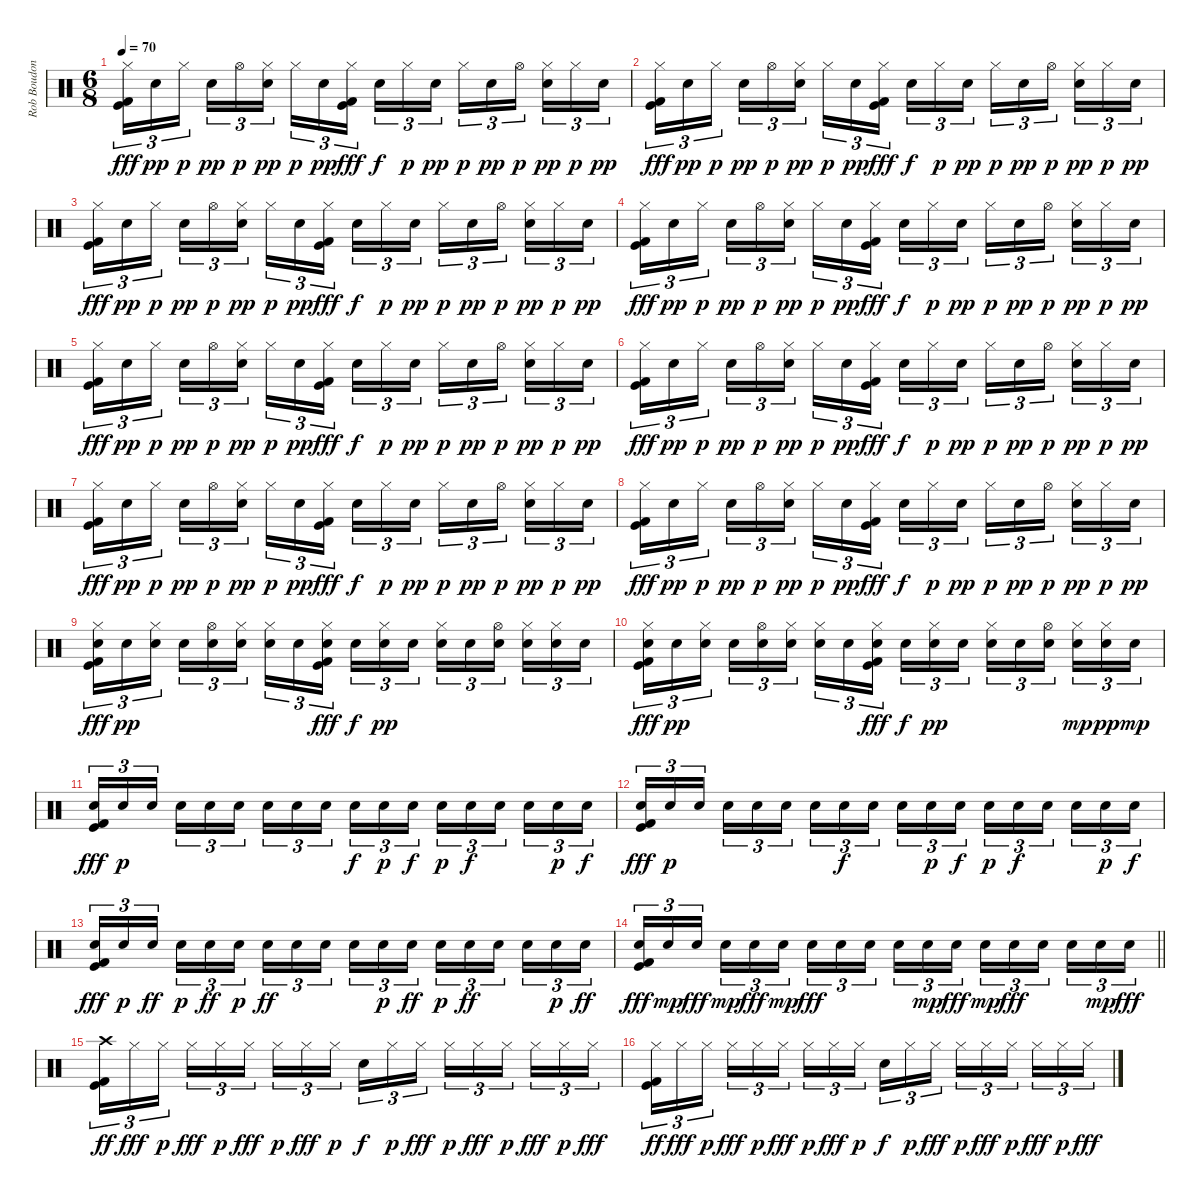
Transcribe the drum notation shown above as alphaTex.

\track ("Rob Boudon [Drums]" "Rob Boudon") {instrument percussion}
\staff {score}
\articulation defaults
\ts (6 8)
\tempo 70
\clef neutral
\ks c
("Hi-Hat (closed)" "Kick (hit)" "Kick (hit) 2").16{tu (3 2) dy fff} "Electric Snare (hit)".16{tu (3 2) dy pp} "Hi-Hat (closed)".16{tu (3 2) dy p beam splitsecondary} "Electric Snare (hit)".16{tu (3 2) dy pp} "Hi-Hat (open)".16{tu (3 2) dy p} ("Hi-Hat (closed)" "Electric Snare (hit)").16{tu (3 2) dy pp beam splitsecondary} "Hi-Hat (closed)".16{tu (3 2) dy p} "Electric Snare (hit)".16{tu (3 2) dy pp} ("Hi-Hat (closed)" "Kick (hit)" "Kick (hit) 2").16{tu (3 2) dy fff} "Electric Snare (hit)".16{tu (3 2) dy f} "Hi-Hat (closed)".16{tu (3 2) dy p} "Electric Snare (hit)".16{tu (3 2) dy pp beam splitsecondary} "Hi-Hat (closed)".16{tu (3 2) dy p} "Electric Snare (hit)".16{tu (3 2) dy pp} "Hi-Hat (open)".16{tu (3 2) dy p beam splitsecondary} ("Hi-Hat (closed)" "Electric Snare (hit)").16{tu (3 2) dy pp} "Hi-Hat (closed)".16{tu (3 2) dy p} "Electric Snare (hit)".16{tu (3 2) dy pp} |
("Hi-Hat (closed)" "Kick (hit)" "Kick (hit) 2").16{tu (3 2) dy fff} "Electric Snare (hit)".16{tu (3 2) dy pp} "Hi-Hat (closed)".16{tu (3 2) dy p beam splitsecondary} "Electric Snare (hit)".16{tu (3 2) dy pp} "Hi-Hat (open)".16{tu (3 2) dy p} ("Hi-Hat (closed)" "Electric Snare (hit)").16{tu (3 2) dy pp beam splitsecondary} "Hi-Hat (closed)".16{tu (3 2) dy p} "Electric Snare (hit)".16{tu (3 2) dy pp} ("Hi-Hat (closed)" "Kick (hit)" "Kick (hit) 2").16{tu (3 2) dy fff} "Electric Snare (hit)".16{tu (3 2) dy f} "Hi-Hat (closed)".16{tu (3 2) dy p} "Electric Snare (hit)".16{tu (3 2) dy pp beam splitsecondary} "Hi-Hat (closed)".16{tu (3 2) dy p} "Electric Snare (hit)".16{tu (3 2) dy pp} "Hi-Hat (open)".16{tu (3 2) dy p beam splitsecondary} ("Hi-Hat (closed)" "Electric Snare (hit)").16{tu (3 2) dy pp} "Hi-Hat (closed)".16{tu (3 2) dy p} "Electric Snare (hit)".16{tu (3 2) dy pp} |
("Hi-Hat (closed)" "Kick (hit)" "Kick (hit) 2").16{tu (3 2) dy fff} "Electric Snare (hit)".16{tu (3 2) dy pp} "Hi-Hat (closed)".16{tu (3 2) dy p beam splitsecondary} "Electric Snare (hit)".16{tu (3 2) dy pp} "Hi-Hat (open)".16{tu (3 2) dy p} ("Hi-Hat (closed)" "Electric Snare (hit)").16{tu (3 2) dy pp beam splitsecondary} "Hi-Hat (closed)".16{tu (3 2) dy p} "Electric Snare (hit)".16{tu (3 2) dy pp} ("Hi-Hat (closed)" "Kick (hit)" "Kick (hit) 2").16{tu (3 2) dy fff} "Electric Snare (hit)".16{tu (3 2) dy f} "Hi-Hat (closed)".16{tu (3 2) dy p} "Electric Snare (hit)".16{tu (3 2) dy pp beam splitsecondary} "Hi-Hat (closed)".16{tu (3 2) dy p} "Electric Snare (hit)".16{tu (3 2) dy pp} "Hi-Hat (open)".16{tu (3 2) dy p beam splitsecondary} ("Hi-Hat (closed)" "Electric Snare (hit)").16{tu (3 2) dy pp} "Hi-Hat (closed)".16{tu (3 2) dy p} "Electric Snare (hit)".16{tu (3 2) dy pp} |
("Hi-Hat (closed)" "Kick (hit)" "Kick (hit) 2").16{tu (3 2) dy fff} "Electric Snare (hit)".16{tu (3 2) dy pp} "Hi-Hat (closed)".16{tu (3 2) dy p beam splitsecondary} "Electric Snare (hit)".16{tu (3 2) dy pp} "Hi-Hat (open)".16{tu (3 2) dy p} ("Hi-Hat (closed)" "Electric Snare (hit)").16{tu (3 2) dy pp beam splitsecondary} "Hi-Hat (closed)".16{tu (3 2) dy p} "Electric Snare (hit)".16{tu (3 2) dy pp} ("Hi-Hat (closed)" "Kick (hit)" "Kick (hit) 2").16{tu (3 2) dy fff} "Electric Snare (hit)".16{tu (3 2) dy f} "Hi-Hat (closed)".16{tu (3 2) dy p} "Electric Snare (hit)".16{tu (3 2) dy pp beam splitsecondary} "Hi-Hat (closed)".16{tu (3 2) dy p} "Electric Snare (hit)".16{tu (3 2) dy pp} "Hi-Hat (open)".16{tu (3 2) dy p beam splitsecondary} ("Hi-Hat (closed)" "Electric Snare (hit)").16{tu (3 2) dy pp} "Hi-Hat (closed)".16{tu (3 2) dy p} "Electric Snare (hit)".16{tu (3 2) dy pp} |
("Hi-Hat (closed)" "Kick (hit)" "Kick (hit) 2").16{tu (3 2) dy fff} "Electric Snare (hit)".16{tu (3 2) dy pp} "Hi-Hat (closed)".16{tu (3 2) dy p beam splitsecondary} "Electric Snare (hit)".16{tu (3 2) dy pp} "Hi-Hat (open)".16{tu (3 2) dy p} ("Hi-Hat (closed)" "Electric Snare (hit)").16{tu (3 2) dy pp beam splitsecondary} "Hi-Hat (closed)".16{tu (3 2) dy p} "Electric Snare (hit)".16{tu (3 2) dy pp} ("Hi-Hat (closed)" "Kick (hit)" "Kick (hit) 2").16{tu (3 2) dy fff} "Electric Snare (hit)".16{tu (3 2) dy f} "Hi-Hat (closed)".16{tu (3 2) dy p} "Electric Snare (hit)".16{tu (3 2) dy pp beam splitsecondary} "Hi-Hat (closed)".16{tu (3 2) dy p} "Electric Snare (hit)".16{tu (3 2) dy pp} "Hi-Hat (open)".16{tu (3 2) dy p beam splitsecondary} ("Hi-Hat (closed)" "Electric Snare (hit)").16{tu (3 2) dy pp} "Hi-Hat (closed)".16{tu (3 2) dy p} "Electric Snare (hit)".16{tu (3 2) dy pp} |
("Hi-Hat (closed)" "Kick (hit)" "Kick (hit) 2").16{tu (3 2) dy fff} "Electric Snare (hit)".16{tu (3 2) dy pp} "Hi-Hat (closed)".16{tu (3 2) dy p beam splitsecondary} "Electric Snare (hit)".16{tu (3 2) dy pp} "Hi-Hat (open)".16{tu (3 2) dy p} ("Hi-Hat (closed)" "Electric Snare (hit)").16{tu (3 2) dy pp beam splitsecondary} "Hi-Hat (closed)".16{tu (3 2) dy p} "Electric Snare (hit)".16{tu (3 2) dy pp} ("Hi-Hat (closed)" "Kick (hit)" "Kick (hit) 2").16{tu (3 2) dy fff} "Electric Snare (hit)".16{tu (3 2) dy f} "Hi-Hat (closed)".16{tu (3 2) dy p} "Electric Snare (hit)".16{tu (3 2) dy pp beam splitsecondary} "Hi-Hat (closed)".16{tu (3 2) dy p} "Electric Snare (hit)".16{tu (3 2) dy pp} "Hi-Hat (open)".16{tu (3 2) dy p beam splitsecondary} ("Hi-Hat (closed)" "Electric Snare (hit)").16{tu (3 2) dy pp} "Hi-Hat (closed)".16{tu (3 2) dy p} "Electric Snare (hit)".16{tu (3 2) dy pp} |
("Hi-Hat (closed)" "Kick (hit)" "Kick (hit) 2").16{tu (3 2) dy fff} "Electric Snare (hit)".16{tu (3 2) dy pp} "Hi-Hat (closed)".16{tu (3 2) dy p beam splitsecondary} "Electric Snare (hit)".16{tu (3 2) dy pp} "Hi-Hat (open)".16{tu (3 2) dy p} ("Hi-Hat (closed)" "Electric Snare (hit)").16{tu (3 2) dy pp beam splitsecondary} "Hi-Hat (closed)".16{tu (3 2) dy p} "Electric Snare (hit)".16{tu (3 2) dy pp} ("Hi-Hat (closed)" "Kick (hit)" "Kick (hit) 2").16{tu (3 2) dy fff} "Electric Snare (hit)".16{tu (3 2) dy f} "Hi-Hat (closed)".16{tu (3 2) dy p} "Electric Snare (hit)".16{tu (3 2) dy pp beam splitsecondary} "Hi-Hat (closed)".16{tu (3 2) dy p} "Electric Snare (hit)".16{tu (3 2) dy pp} "Hi-Hat (open)".16{tu (3 2) dy p beam splitsecondary} ("Hi-Hat (closed)" "Electric Snare (hit)").16{tu (3 2) dy pp} "Hi-Hat (closed)".16{tu (3 2) dy p} "Electric Snare (hit)".16{tu (3 2) dy pp} |
("Hi-Hat (closed)" "Kick (hit)" "Kick (hit) 2").16{tu (3 2) dy fff} "Electric Snare (hit)".16{tu (3 2) dy pp} "Hi-Hat (closed)".16{tu (3 2) dy p beam splitsecondary} "Electric Snare (hit)".16{tu (3 2) dy pp} "Hi-Hat (open)".16{tu (3 2) dy p} ("Hi-Hat (closed)" "Electric Snare (hit)").16{tu (3 2) dy pp beam splitsecondary} "Hi-Hat (closed)".16{tu (3 2) dy p} "Electric Snare (hit)".16{tu (3 2) dy pp} ("Hi-Hat (closed)" "Kick (hit)" "Kick (hit) 2").16{tu (3 2) dy fff} "Electric Snare (hit)".16{tu (3 2) dy f} "Hi-Hat (closed)".16{tu (3 2) dy p} "Electric Snare (hit)".16{tu (3 2) dy pp beam splitsecondary} "Hi-Hat (closed)".16{tu (3 2) dy p} "Electric Snare (hit)".16{tu (3 2) dy pp} "Hi-Hat (open)".16{tu (3 2) dy p beam splitsecondary} ("Hi-Hat (closed)" "Electric Snare (hit)").16{tu (3 2) dy pp} "Hi-Hat (closed)".16{tu (3 2) dy p} "Electric Snare (hit)".16{tu (3 2) dy pp} |
("Hi-Hat (closed)" "Electric Snare (hit)" "Kick (hit)" "Kick (hit) 2").16{tu (3 2) dy fff} "Electric Snare (hit)".16{tu (3 2) dy pp} ("Hi-Hat (closed)" "Electric Snare (hit)").16{tu (3 2) beam splitsecondary} "Electric Snare (hit)".16{tu (3 2)} ("Hi-Hat (open)" "Electric Snare (hit)").16{tu (3 2)} ("Hi-Hat (closed)" "Electric Snare (hit)").16{tu (3 2) beam splitsecondary} ("Hi-Hat (closed)" "Electric Snare (hit)").16{tu (3 2)} "Electric Snare (hit)".16{tu (3 2)} ("Hi-Hat (closed)" "Electric Snare (hit)" "Kick (hit)" "Kick (hit) 2").16{tu (3 2) dy fff} "Electric Snare (hit)".16{tu (3 2) dy f} ("Hi-Hat (closed)" "Electric Snare (hit)").16{tu (3 2) dy pp} "Electric Snare (hit)".16{tu (3 2) beam splitsecondary} ("Hi-Hat (closed)" "Electric Snare (hit)").16{tu (3 2)} "Electric Snare (hit)".16{tu (3 2)} ("Hi-Hat (open)" "Electric Snare (hit)").16{tu (3 2) beam splitsecondary} ("Hi-Hat (closed)" "Electric Snare (hit)").16{tu (3 2)} ("Hi-Hat (closed)" "Electric Snare (hit)").16{tu (3 2)} "Electric Snare (hit)".16{tu (3 2)} |
("Hi-Hat (closed)" "Electric Snare (hit)" "Kick (hit)" "Kick (hit) 2").16{tu (3 2) dy fff} "Electric Snare (hit)".16{tu (3 2) dy pp} ("Hi-Hat (closed)" "Electric Snare (hit)").16{tu (3 2) beam splitsecondary} "Electric Snare (hit)".16{tu (3 2)} ("Hi-Hat (open)" "Electric Snare (hit)").16{tu (3 2)} ("Hi-Hat (closed)" "Electric Snare (hit)").16{tu (3 2) beam splitsecondary} ("Hi-Hat (closed)" "Electric Snare (hit)").16{tu (3 2)} "Electric Snare (hit)".16{tu (3 2)} ("Hi-Hat (closed)" "Electric Snare (hit)" "Kick (hit)" "Kick (hit) 2").16{tu (3 2) dy fff} "Electric Snare (hit)".16{tu (3 2) dy f} ("Hi-Hat (closed)" "Electric Snare (hit)").16{tu (3 2) dy pp} "Electric Snare (hit)".16{tu (3 2) beam splitsecondary} ("Hi-Hat (closed)" "Electric Snare (hit)").16{tu (3 2)} "Electric Snare (hit)".16{tu (3 2)} ("Hi-Hat (open)" "Electric Snare (hit)").16{tu (3 2) beam splitsecondary} ("Hi-Hat (closed)" "Electric Snare (hit)").16{tu (3 2) dy mp} ("Hi-Hat (closed)" "Electric Snare (hit)").16{tu (3 2) dy pp} "Electric Snare (hit)".16{tu (3 2) dy mp} |
("Electric Snare (hit)" "Kick (hit)" "Kick (hit) 2").16{tu (3 2) dy fff} "Electric Snare (hit)".16{tu (3 2) dy p} "Electric Snare (hit)".16{tu (3 2) beam splitsecondary} "Electric Snare (hit)".16{tu (3 2)} "Electric Snare (hit)".16{tu (3 2)} "Electric Snare (hit)".16{tu (3 2) beam splitsecondary} "Electric Snare (hit)".16{tu (3 2)} "Electric Snare (hit)".16{tu (3 2)} "Electric Snare (hit)".16{tu (3 2)} "Electric Snare (hit)".16{tu (3 2) dy f} "Electric Snare (hit)".16{tu (3 2) dy p} "Electric Snare (hit)".16{tu (3 2) dy f beam splitsecondary} "Electric Snare (hit)".16{tu (3 2) dy p} "Electric Snare (hit)".16{tu (3 2) dy f} "Electric Snare (hit)".16{tu (3 2) beam splitsecondary} "Electric Snare (hit)".16{tu (3 2)} "Electric Snare (hit)".16{tu (3 2) dy p} "Electric Snare (hit)".16{tu (3 2) dy f} |
("Electric Snare (hit)" "Kick (hit)" "Kick (hit) 2").16{tu (3 2) dy fff} "Electric Snare (hit)".16{tu (3 2) dy p} "Electric Snare (hit)".16{tu (3 2) beam splitsecondary} "Electric Snare (hit)".16{tu (3 2)} "Electric Snare (hit)".16{tu (3 2)} "Electric Snare (hit)".16{tu (3 2) beam splitsecondary} "Electric Snare (hit)".16{tu (3 2)} "Electric Snare (hit)".16{tu (3 2) dy f} "Electric Snare (hit)".16{tu (3 2)} "Electric Snare (hit)".16{tu (3 2)} "Electric Snare (hit)".16{tu (3 2) dy p} "Electric Snare (hit)".16{tu (3 2) dy f beam splitsecondary} "Electric Snare (hit)".16{tu (3 2) dy p} "Electric Snare (hit)".16{tu (3 2) dy f} "Electric Snare (hit)".16{tu (3 2) beam splitsecondary} "Electric Snare (hit)".16{tu (3 2)} "Electric Snare (hit)".16{tu (3 2) dy p} "Electric Snare (hit)".16{tu (3 2) dy f} |
("Electric Snare (hit)" "Kick (hit)" "Kick (hit) 2").16{tu (3 2) dy fff} "Electric Snare (hit)".16{tu (3 2) dy p} "Electric Snare (hit)".16{tu (3 2) dy ff beam splitsecondary} "Electric Snare (hit)".16{tu (3 2) dy p} "Electric Snare (hit)".16{tu (3 2) dy ff} "Electric Snare (hit)".16{tu (3 2) dy p beam splitsecondary} "Electric Snare (hit)".16{tu (3 2) dy ff} "Electric Snare (hit)".16{tu (3 2)} "Electric Snare (hit)".16{tu (3 2)} "Electric Snare (hit)".16{tu (3 2)} "Electric Snare (hit)".16{tu (3 2) dy p} "Electric Snare (hit)".16{tu (3 2) dy ff beam splitsecondary} "Electric Snare (hit)".16{tu (3 2) dy p} "Electric Snare (hit)".16{tu (3 2) dy ff} "Electric Snare (hit)".16{tu (3 2) beam splitsecondary} "Electric Snare (hit)".16{tu (3 2)} "Electric Snare (hit)".16{tu (3 2) dy p} "Electric Snare (hit)".16{tu (3 2) dy ff} |
\barLineRight lightlight
("Electric Snare (hit)" "Kick (hit)" "Kick (hit) 2").16{tu (3 2) dy fff} "Electric Snare (hit)".16{tu (3 2) dy mp} "Electric Snare (hit)".16{tu (3 2) dy fff beam splitsecondary} "Electric Snare (hit)".16{tu (3 2) dy mp} "Electric Snare (hit)".16{tu (3 2) dy fff} "Electric Snare (hit)".16{tu (3 2) dy mp beam splitsecondary} "Electric Snare (hit)".16{tu (3 2) dy fff} "Electric Snare (hit)".16{tu (3 2)} "Electric Snare (hit)".16{tu (3 2)} "Electric Snare (hit)".16{tu (3 2)} "Electric Snare (hit)".16{tu (3 2) dy mp} "Electric Snare (hit)".16{tu (3 2) dy fff beam splitsecondary} "Electric Snare (hit)".16{tu (3 2) dy mp} "Electric Snare (hit)".16{tu (3 2) dy fff} "Electric Snare (hit)".16{tu (3 2) beam splitsecondary} "Electric Snare (hit)".16{tu (3 2)} "Electric Snare (hit)".16{tu (3 2) dy mp} "Electric Snare (hit)".16{tu (3 2) dy fff} |
("Crash high (hit)" "Kick (hit) 2" "Kick (hit)").16{tu (3 2) dy ff volume 16} "Hi-Hat (closed)".16{tu (3 2) dy fff} "Hi-Hat (closed)".16{tu (3 2) dy p beam splitsecondary} "Hi-Hat (closed)".16{tu (3 2) dy fff} "Hi-Hat (closed)".16{tu (3 2) dy p} "Hi-Hat (closed)".16{tu (3 2) dy fff beam splitsecondary} "Hi-Hat (closed)".16{tu (3 2) dy p} "Hi-Hat (closed)".16{tu (3 2) dy fff} "Hi-Hat (closed)".16{tu (3 2) dy p} "Electric Snare (hit)".16{tu (3 2) dy f} "Hi-Hat (closed)".16{tu (3 2) dy p} "Hi-Hat (closed)".16{tu (3 2) dy fff beam splitsecondary} "Hi-Hat (closed)".16{tu (3 2) dy p} "Hi-Hat (closed)".16{tu (3 2) dy fff} "Hi-Hat (closed)".16{tu (3 2) dy p beam splitsecondary} "Hi-Hat (closed)".16{tu (3 2) dy fff} "Hi-Hat (closed)".16{tu (3 2) dy p} "Hi-Hat (closed)".16{tu (3 2) dy fff} |
("Hi-Hat (closed)" "Kick (hit) 2" "Kick (hit)").16{tu (3 2) dy ff} "Hi-Hat (closed)".16{tu (3 2) dy fff} "Hi-Hat (closed)".16{tu (3 2) dy p beam splitsecondary} "Hi-Hat (closed)".16{tu (3 2) dy fff} "Hi-Hat (closed)".16{tu (3 2) dy p} "Hi-Hat (closed)".16{tu (3 2) dy fff beam splitsecondary} "Hi-Hat (closed)".16{tu (3 2) dy p} "Hi-Hat (closed)".16{tu (3 2) dy fff} "Hi-Hat (closed)".16{tu (3 2) dy p} "Electric Snare (hit)".16{tu (3 2) dy f} "Hi-Hat (closed)".16{tu (3 2) dy p} "Hi-Hat (closed)".16{tu (3 2) dy fff beam splitsecondary} "Hi-Hat (closed)".16{tu (3 2) dy p} "Hi-Hat (closed)".16{tu (3 2) dy fff} "Hi-Hat (closed)".16{tu (3 2) dy p beam splitsecondary} "Hi-Hat (closed)".16{tu (3 2) dy fff} "Hi-Hat (closed)".16{tu (3 2) dy p} "Hi-Hat (closed)".16{tu (3 2) dy fff}
